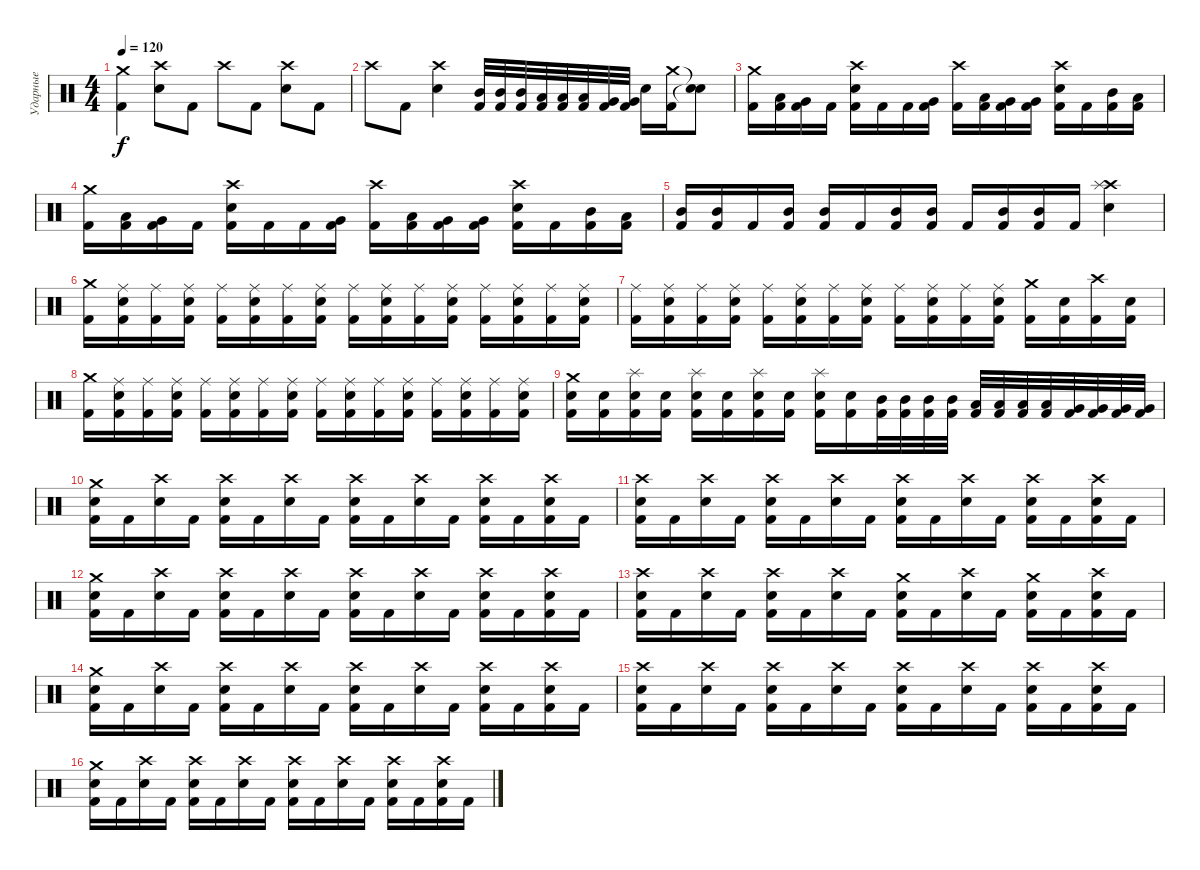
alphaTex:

\track ("Ударные" "Ударные") {instrument percussion}
\staff {score}
\articulation defaults
\ts (4 4)
\tempo 120
\clef neutral
\ks c
("Kick (hit) 2" "Crash medium (hit)").4{dy f} ("Electric Snare (hit)" "Crash high (hit)").8 "Kick (hit) 2".8 "Crash high (hit)".8 "Kick (hit) 2".8 ("Electric Snare (hit)" "Crash high (hit)").8 "Kick (hit) 2".8 |
"Crash high (hit)".8 "Kick (hit) 2".8 ("Electric Snare (hit)" "Crash high (hit)").4 ("Mid Tom (hit)" "Kick (hit) 2").32 ("Mid Tom (hit)" "Kick (hit) 2").32 ("Mid Tom (hit)" "Kick (hit) 2").32 ("Low Tom (hit)" "Kick (hit) 2").32 ("Low Tom (hit)" "Kick (hit) 2").32 ("Low Tom (hit)" "Kick (hit) 2").32 ("Very Low Tom (hit)" "Kick (hit) 2").32 ("Very Low Tom (hit)" "Kick (hit) 2").32 "Electric Snare (hit)".16 ("Crash medium (hit)" "Kick (hit) 2").16 ("Snare (hit)"{t} "Snare (hit)"{t}).8 |
("Kick (hit) 2" "Crash medium (hit)").16 ("Kick (hit) 2" "Low Tom (hit)").16 ("Kick (hit) 2" "Very Low Tom (hit)").16 "Kick (hit) 2".16 ("Kick (hit) 2" "Electric Snare (hit)" "Crash high (hit)").16 "Kick (hit) 2".16 "Kick (hit) 2".16 ("Kick (hit) 2" "Very Low Tom (hit)").16 ("Kick (hit) 2" "Crash high (hit)").16 ("Kick (hit) 2" "Low Tom (hit)").16 ("Kick (hit) 2" "Very Low Tom (hit)").16 ("Kick (hit) 2" "Very Low Tom (hit)").16 ("Kick (hit) 2" "Electric Snare (hit)" "Crash high (hit)").16 "Kick (hit) 2".16 ("Kick (hit) 2" "Mid Tom (hit)").16 ("Kick (hit) 2" "Low Tom (hit)").16 |
("Kick (hit) 2" "Crash medium (hit)").16 ("Kick (hit) 2" "Low Tom (hit)").16 ("Kick (hit) 2" "Very Low Tom (hit)").16 "Kick (hit) 2".16 ("Kick (hit) 2" "Electric Snare (hit)" "Crash high (hit)").16 "Kick (hit) 2".16 "Kick (hit) 2".16 ("Kick (hit) 2" "Very Low Tom (hit)").16 ("Kick (hit) 2" "Crash high (hit)").16 ("Kick (hit) 2" "Low Tom (hit)").16 ("Kick (hit) 2" "Very Low Tom (hit)").16 ("Kick (hit) 2" "Very Low Tom (hit)").16 ("Kick (hit) 2" "Electric Snare (hit)" "Crash high (hit)").16 "Kick (hit) 2".16 ("Kick (hit) 2" "Mid Tom (hit)").16 ("Kick (hit) 2" "Low Tom (hit)").16 |
("Kick (hit) 2" "Mid Tom (hit)").16 ("Kick (hit) 2" "Mid Tom (hit)").16 "Kick (hit) 2".16 ("Kick (hit) 2" "Mid Tom (hit)").16 ("Kick (hit) 2" "Mid Tom (hit)").16 "Kick (hit) 2".16 ("Kick (hit) 2" "Mid Tom (hit)").16 ("Kick (hit) 2" "Mid Tom (hit)").16 "Kick (hit) 2".16 ("Kick (hit) 2" "Mid Tom (hit)").16 ("Kick (hit) 2" "Mid Tom (hit)").16 "Kick (hit) 2".16 ("Electric Snare (hit)" "Crash high (hit)" "Splash (hit)").4 |
("Crash medium (hit)" "Kick (hit) 2").16 ("Ride (middle)" "Electric Snare (hit)" "Kick (hit) 2").16 ("Ride (middle)" "Kick (hit) 2").16 ("Ride (middle)" "Electric Snare (hit)" "Kick (hit) 2").16 ("Ride (middle)" "Kick (hit) 2").16 ("Ride (middle)" "Electric Snare (hit)" "Kick (hit) 2").16 ("Ride (middle)" "Kick (hit) 2").16 ("Ride (middle)" "Electric Snare (hit)" "Kick (hit) 2").16 ("Ride (middle)" "Kick (hit) 2").16 ("Ride (middle)" "Electric Snare (hit)" "Kick (hit) 2").16 ("Ride (middle)" "Kick (hit) 2").16 ("Ride (middle)" "Electric Snare (hit)" "Kick (hit) 2").16 ("Ride (middle)" "Kick (hit) 2").16 ("Ride (middle)" "Electric Snare (hit)" "Kick (hit) 2").16 ("Ride (middle)" "Kick (hit) 2").16 ("Ride (middle)" "Electric Snare (hit)" "Kick (hit) 2").16 |
("Ride (middle)" "Kick (hit) 2").16 ("Ride (middle)" "Electric Snare (hit)" "Kick (hit) 2").16 ("Ride (middle)" "Kick (hit) 2").16 ("Ride (middle)" "Electric Snare (hit)" "Kick (hit) 2").16 ("Ride (middle)" "Kick (hit) 2").16 ("Ride (middle)" "Electric Snare (hit)" "Kick (hit) 2").16 ("Ride (middle)" "Kick (hit) 2").16 ("Ride (middle)" "Electric Snare (hit)" "Kick (hit) 2").16 ("Ride (middle)" "Kick (hit) 2").16 ("Ride (middle)" "Electric Snare (hit)" "Kick (hit) 2").16 ("Ride (middle)" "Kick (hit) 2").16 ("Ride (middle)" "Electric Snare (hit)" "Kick (hit) 2").16 ("Crash medium (hit)" "Kick (hit) 2").16 ("Electric Snare (hit)" "Kick (hit) 2").16 ("Crash high (hit)" "Kick (hit) 2").16 ("Electric Snare (hit)" "Kick (hit) 2").16 |
("Crash medium (hit)" "Kick (hit) 2").16 ("Ride (middle)" "Electric Snare (hit)" "Kick (hit) 2").16 ("Ride (middle)" "Kick (hit) 2").16 ("Ride (middle)" "Electric Snare (hit)" "Kick (hit) 2").16 ("Ride (middle)" "Kick (hit) 2").16 ("Ride (middle)" "Electric Snare (hit)" "Kick (hit) 2").16 ("Ride (middle)" "Kick (hit) 2").16 ("Ride (middle)" "Electric Snare (hit)" "Kick (hit) 2").16 ("Ride (middle)" "Kick (hit) 2").16 ("Ride (middle)" "Electric Snare (hit)" "Kick (hit) 2").16 ("Ride (middle)" "Kick (hit) 2").16 ("Ride (middle)" "Electric Snare (hit)" "Kick (hit) 2").16 ("Ride (middle)" "Kick (hit) 2").16 ("Ride (middle)" "Electric Snare (hit)" "Kick (hit) 2").16 ("Ride (middle)" "Kick (hit) 2").16 ("Ride (middle)" "Electric Snare (hit)" "Kick (hit) 2").16 |
("Crash medium (hit)" "Electric Snare (hit)" "Kick (hit) 2").16 ("Electric Snare (hit)" "Kick (hit) 2").16 ("Splash (hit)" "Electric Snare (hit)" "Kick (hit) 2").16 ("Electric Snare (hit)" "Kick (hit) 2").16 ("Splash (hit)" "Electric Snare (hit)" "Kick (hit) 2").16 ("Electric Snare (hit)" "Kick (hit) 2").16 ("Splash (hit)" "Electric Snare (hit)" "Kick (hit) 2").16 ("Electric Snare (hit)" "Kick (hit) 2").16 ("Splash (hit)" "Electric Snare (hit)" "Kick (hit) 2").16 ("Electric Snare (hit)" "Kick (hit) 2").16 ("Mid Tom (hit)" "Kick (hit) 2").32 ("Mid Tom (hit)" "Kick (hit) 2").32 ("Mid Tom (hit)" "Kick (hit) 2").32 ("Mid Tom (hit)" "Kick (hit) 2").32 ("Low Tom (hit)" "Kick (hit) 2").32 ("Low Tom (hit)" "Kick (hit) 2").32 ("Low Tom (hit)" "Kick (hit) 2").32 ("Low Tom (hit)" "Kick (hit) 2").32 ("Very Low Tom (hit)" "Kick (hit) 2").32 ("Very Low Tom (hit)" "Kick (hit) 2").32 ("Very Low Tom (hit)" "Kick (hit) 2").32 ("Very Low Tom (hit)" "Kick (hit) 2").32 |
("Kick (hit) 2" "Electric Snare (hit)" "Crash medium (hit)").16 "Kick (hit) 2".16 ("Electric Snare (hit)" "Crash high (hit)").16 "Kick (hit) 2".16 ("Kick (hit) 2" "Electric Snare (hit)" "Crash high (hit)").16 "Kick (hit) 2".16 ("Electric Snare (hit)" "Crash high (hit)").16 "Kick (hit) 2".16 ("Kick (hit) 2" "Electric Snare (hit)" "Crash high (hit)").16 "Kick (hit) 2".16 ("Electric Snare (hit)" "Crash high (hit)").16 "Kick (hit) 2".16 ("Kick (hit) 2" "Electric Snare (hit)" "Crash high (hit)").16 "Kick (hit) 2".16 ("Kick (hit) 2" "Electric Snare (hit)" "Crash high (hit)").16 "Kick (hit) 2".16 |
("Kick (hit) 2" "Electric Snare (hit)" "Crash high (hit)").16 "Kick (hit) 2".16 ("Electric Snare (hit)" "Crash high (hit)").16 "Kick (hit) 2".16 ("Kick (hit) 2" "Electric Snare (hit)" "Crash high (hit)").16 "Kick (hit) 2".16 ("Electric Snare (hit)" "Crash high (hit)").16 "Kick (hit) 2".16 ("Kick (hit) 2" "Electric Snare (hit)" "Crash high (hit)").16 "Kick (hit) 2".16 ("Electric Snare (hit)" "Crash high (hit)").16 "Kick (hit) 2".16 ("Kick (hit) 2" "Electric Snare (hit)" "Crash high (hit)").16 "Kick (hit) 2".16 ("Kick (hit) 2" "Electric Snare (hit)" "Crash high (hit)").16 "Kick (hit) 2".16 |
("Kick (hit) 2" "Electric Snare (hit)" "Crash medium (hit)").16 "Kick (hit) 2".16 ("Electric Snare (hit)" "Crash high (hit)").16 "Kick (hit) 2".16 ("Kick (hit) 2" "Electric Snare (hit)" "Crash high (hit)").16 "Kick (hit) 2".16 ("Electric Snare (hit)" "Crash high (hit)").16 "Kick (hit) 2".16 ("Kick (hit) 2" "Electric Snare (hit)" "Crash high (hit)").16 "Kick (hit) 2".16 ("Electric Snare (hit)" "Crash high (hit)").16 "Kick (hit) 2".16 ("Kick (hit) 2" "Electric Snare (hit)" "Crash high (hit)").16 "Kick (hit) 2".16 ("Kick (hit) 2" "Electric Snare (hit)" "Crash high (hit)").16 "Kick (hit) 2".16 |
("Kick (hit) 2" "Electric Snare (hit)" "Crash high (hit)").16 "Kick (hit) 2".16 ("Electric Snare (hit)" "Crash high (hit)").16 "Kick (hit) 2".16 ("Kick (hit) 2" "Electric Snare (hit)" "Crash high (hit)").16 "Kick (hit) 2".16 ("Electric Snare (hit)" "Crash high (hit)").16 "Kick (hit) 2".16 ("Kick (hit) 2" "Electric Snare (hit)" "Crash medium (hit)").16 "Kick (hit) 2".16 ("Electric Snare (hit)" "Crash high (hit)").16 "Kick (hit) 2".16 ("Kick (hit) 2" "Electric Snare (hit)" "Crash medium (hit)").16 "Kick (hit) 2".16 ("Kick (hit) 2" "Electric Snare (hit)" "Crash high (hit)").16 "Kick (hit) 2".16 |
("Kick (hit) 2" "Electric Snare (hit)" "Crash medium (hit)").16 "Kick (hit) 2".16 ("Electric Snare (hit)" "Crash high (hit)").16 "Kick (hit) 2".16 ("Kick (hit) 2" "Electric Snare (hit)" "Crash high (hit)").16 "Kick (hit) 2".16 ("Electric Snare (hit)" "Crash high (hit)").16 "Kick (hit) 2".16 ("Kick (hit) 2" "Electric Snare (hit)" "Crash high (hit)").16 "Kick (hit) 2".16 ("Electric Snare (hit)" "Crash high (hit)").16 "Kick (hit) 2".16 ("Kick (hit) 2" "Electric Snare (hit)" "Crash high (hit)").16 "Kick (hit) 2".16 ("Kick (hit) 2" "Electric Snare (hit)" "Crash high (hit)").16 "Kick (hit) 2".16 |
("Kick (hit) 2" "Electric Snare (hit)" "Crash high (hit)").16 "Kick (hit) 2".16 ("Electric Snare (hit)" "Crash high (hit)").16 "Kick (hit) 2".16 ("Kick (hit) 2" "Electric Snare (hit)" "Crash high (hit)").16 "Kick (hit) 2".16 ("Electric Snare (hit)" "Crash high (hit)").16 "Kick (hit) 2".16 ("Kick (hit) 2" "Electric Snare (hit)" "Crash high (hit)").16 "Kick (hit) 2".16 ("Electric Snare (hit)" "Crash high (hit)").16 "Kick (hit) 2".16 ("Kick (hit) 2" "Electric Snare (hit)" "Crash high (hit)").16 "Kick (hit) 2".16 ("Kick (hit) 2" "Electric Snare (hit)" "Crash high (hit)").16 "Kick (hit) 2".16 |
("Kick (hit) 2" "Electric Snare (hit)" "Crash medium (hit)").16 "Kick (hit) 2".16 ("Electric Snare (hit)" "Crash high (hit)").16 "Kick (hit) 2".16 ("Kick (hit) 2" "Electric Snare (hit)" "Crash high (hit)").16 "Kick (hit) 2".16 ("Electric Snare (hit)" "Crash high (hit)").16 "Kick (hit) 2".16 ("Kick (hit) 2" "Electric Snare (hit)" "Crash high (hit)").16 "Kick (hit) 2".16 ("Electric Snare (hit)" "Crash high (hit)").16 "Kick (hit) 2".16 ("Kick (hit) 2" "Electric Snare (hit)" "Crash high (hit)").16 "Kick (hit) 2".16 ("Kick (hit) 2" "Electric Snare (hit)" "Crash high (hit)").16 "Kick (hit) 2".16
